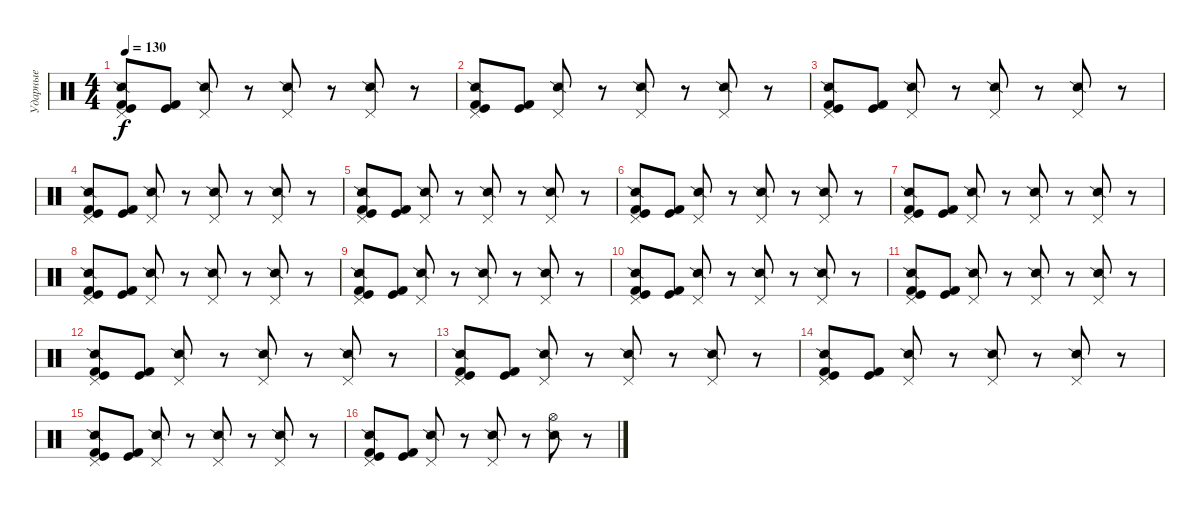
\track ("Ударные" "Ударные") {instrument percussion}
\staff {score}
\articulation defaults
\ts (4 4)
\tempo 130
\clef neutral
\ks c
("Pedal Hi-Hat (hit)" "Snare (side stick) 2" "Kick (hit)" "Kick (hit) 2").8{dy f} ("Kick (hit)" "Kick (hit) 2").8 ("Pedal Hi-Hat (hit)" "Snare (side stick) 2").8 r.8 ("Pedal Hi-Hat (hit)" "Snare (side stick) 2").8 r.8 ("Pedal Hi-Hat (hit)" "Snare (side stick) 2").8 r.8 |
("Pedal Hi-Hat (hit)" "Snare (side stick) 2" "Kick (hit)" "Kick (hit) 2").8 ("Kick (hit)" "Kick (hit) 2").8 ("Pedal Hi-Hat (hit)" "Snare (side stick) 2").8 r.8 ("Pedal Hi-Hat (hit)" "Snare (side stick) 2").8 r.8 ("Pedal Hi-Hat (hit)" "Snare (side stick) 2").8 r.8 |
("Pedal Hi-Hat (hit)" "Snare (side stick) 2" "Kick (hit)" "Kick (hit) 2").8 ("Kick (hit)" "Kick (hit) 2").8 ("Pedal Hi-Hat (hit)" "Snare (side stick) 2").8 r.8 ("Pedal Hi-Hat (hit)" "Snare (side stick) 2").8 r.8 ("Pedal Hi-Hat (hit)" "Snare (side stick) 2").8 r.8 |
("Pedal Hi-Hat (hit)" "Snare (side stick) 2" "Kick (hit)" "Kick (hit) 2").8 ("Kick (hit)" "Kick (hit) 2").8 ("Pedal Hi-Hat (hit)" "Snare (side stick) 2").8 r.8 ("Pedal Hi-Hat (hit)" "Snare (side stick) 2").8 r.8 ("Pedal Hi-Hat (hit)" "Snare (side stick) 2").8 r.8 |
("Pedal Hi-Hat (hit)" "Snare (side stick) 2" "Kick (hit)" "Kick (hit) 2").8 ("Kick (hit)" "Kick (hit) 2").8 ("Pedal Hi-Hat (hit)" "Snare (side stick) 2").8 r.8 ("Pedal Hi-Hat (hit)" "Snare (side stick) 2").8 r.8 ("Pedal Hi-Hat (hit)" "Snare (side stick) 2").8 r.8 |
("Pedal Hi-Hat (hit)" "Snare (side stick) 2" "Kick (hit)" "Kick (hit) 2").8 ("Kick (hit)" "Kick (hit) 2").8 ("Pedal Hi-Hat (hit)" "Snare (side stick) 2").8 r.8 ("Pedal Hi-Hat (hit)" "Snare (side stick) 2").8 r.8 ("Pedal Hi-Hat (hit)" "Snare (side stick) 2").8 r.8 |
("Pedal Hi-Hat (hit)" "Snare (side stick) 2" "Kick (hit)" "Kick (hit) 2").8 ("Kick (hit)" "Kick (hit) 2").8 ("Pedal Hi-Hat (hit)" "Snare (side stick) 2").8 r.8 ("Pedal Hi-Hat (hit)" "Snare (side stick) 2").8 r.8 ("Pedal Hi-Hat (hit)" "Snare (side stick) 2").8 r.8 |
("Pedal Hi-Hat (hit)" "Snare (side stick) 2" "Kick (hit)" "Kick (hit) 2").8 ("Kick (hit)" "Kick (hit) 2").8 ("Pedal Hi-Hat (hit)" "Snare (side stick) 2").8 r.8 ("Pedal Hi-Hat (hit)" "Snare (side stick) 2").8 r.8 ("Pedal Hi-Hat (hit)" "Snare (side stick) 2").8 r.8 |
("Pedal Hi-Hat (hit)" "Snare (side stick) 2" "Kick (hit)" "Kick (hit) 2").8 ("Kick (hit)" "Kick (hit) 2").8 ("Pedal Hi-Hat (hit)" "Snare (side stick) 2").8 r.8 ("Pedal Hi-Hat (hit)" "Snare (side stick) 2").8 r.8 ("Pedal Hi-Hat (hit)" "Snare (side stick) 2").8 r.8 |
("Pedal Hi-Hat (hit)" "Snare (side stick) 2" "Kick (hit)" "Kick (hit) 2").8 ("Kick (hit)" "Kick (hit) 2").8 ("Pedal Hi-Hat (hit)" "Snare (side stick) 2").8 r.8 ("Pedal Hi-Hat (hit)" "Snare (side stick) 2").8 r.8 ("Pedal Hi-Hat (hit)" "Snare (side stick) 2").8 r.8 |
("Pedal Hi-Hat (hit)" "Snare (side stick) 2" "Kick (hit)" "Kick (hit) 2").8 ("Kick (hit)" "Kick (hit) 2").8 ("Pedal Hi-Hat (hit)" "Snare (side stick) 2").8 r.8 ("Pedal Hi-Hat (hit)" "Snare (side stick) 2").8 r.8 ("Pedal Hi-Hat (hit)" "Snare (side stick) 2").8 r.8 |
("Pedal Hi-Hat (hit)" "Snare (side stick) 2" "Kick (hit)" "Kick (hit) 2").8 ("Kick (hit)" "Kick (hit) 2").8 ("Pedal Hi-Hat (hit)" "Snare (side stick) 2").8 r.8 ("Pedal Hi-Hat (hit)" "Snare (side stick) 2").8 r.8 ("Pedal Hi-Hat (hit)" "Snare (side stick) 2").8 r.8 |
("Pedal Hi-Hat (hit)" "Snare (side stick) 2" "Kick (hit)" "Kick (hit) 2").8 ("Kick (hit)" "Kick (hit) 2").8 ("Pedal Hi-Hat (hit)" "Snare (side stick) 2").8 r.8 ("Pedal Hi-Hat (hit)" "Snare (side stick) 2").8 r.8 ("Pedal Hi-Hat (hit)" "Snare (side stick) 2").8 r.8 |
("Pedal Hi-Hat (hit)" "Snare (side stick) 2" "Kick (hit)" "Kick (hit) 2").8 ("Kick (hit)" "Kick (hit) 2").8 ("Pedal Hi-Hat (hit)" "Snare (side stick) 2").8 r.8 ("Pedal Hi-Hat (hit)" "Snare (side stick) 2").8 r.8 ("Pedal Hi-Hat (hit)" "Snare (side stick) 2").8 r.8 |
("Pedal Hi-Hat (hit)" "Snare (side stick) 2" "Kick (hit)" "Kick (hit) 2").8 ("Kick (hit)" "Kick (hit) 2").8 ("Pedal Hi-Hat (hit)" "Snare (side stick) 2").8 r.8 ("Pedal Hi-Hat (hit)" "Snare (side stick) 2").8 r.8 ("Pedal Hi-Hat (hit)" "Snare (side stick) 2").8 r.8 |
("Pedal Hi-Hat (hit)" "Snare (side stick) 2" "Kick (hit)" "Kick (hit) 2").8 ("Kick (hit)" "Kick (hit) 2").8 ("Pedal Hi-Hat (hit)" "Snare (side stick) 2").8 r.8 ("Pedal Hi-Hat (hit)" "Snare (side stick) 2").8 r.8 ("Hi-Hat (open)" "Snare (side stick) 2").8 r.8
